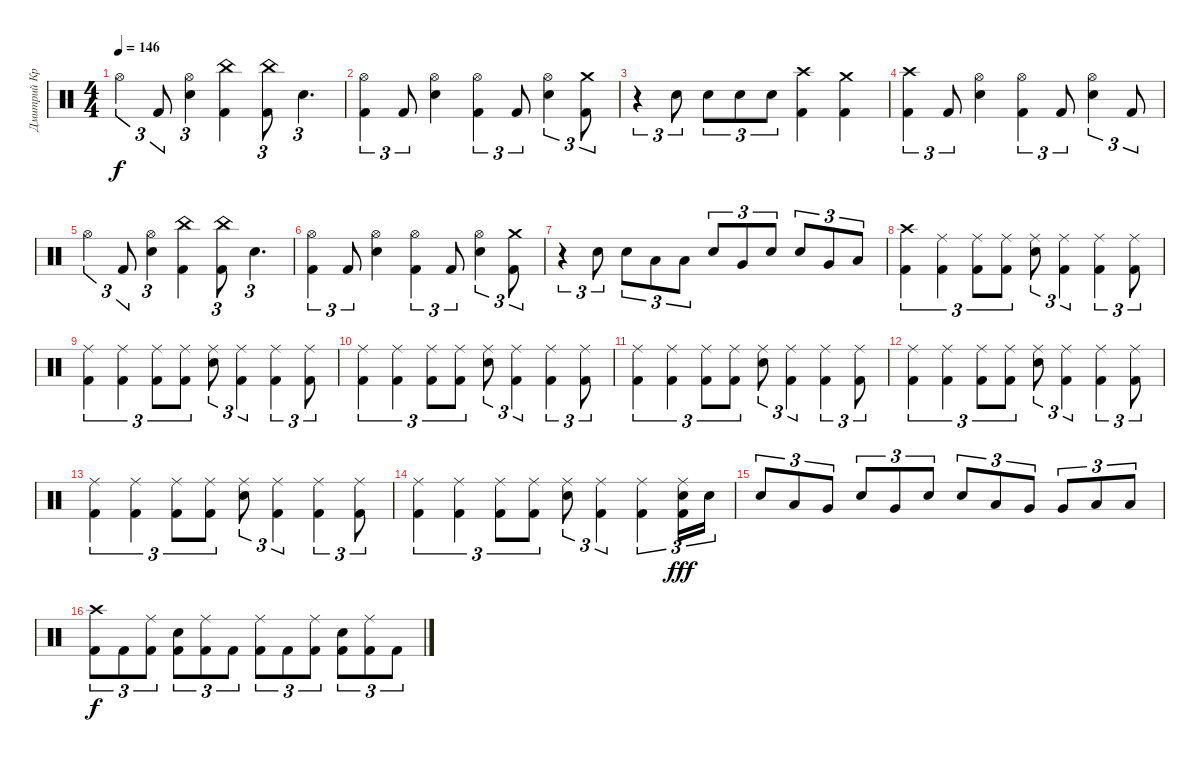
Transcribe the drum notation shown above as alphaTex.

\track ("Дмитрий Кривенков" "Дмитрий Кр") {instrument percussion}
\staff {score}
\articulation defaults
\ts (4 4)
\tempo 146
\clef neutral
\ks c "Hi-Hat (open)".4{tu (3 2) dy f} "Kick (hit) 2".8{tu (3 2)}
("Hi-Hat (open)" "Electric Snare (hit)").4{tu (3 2)} ("China (hit)" "Kick (hit) 2").4 ("China (hit)" "Kick (hit) 2").8{tu (3 2)} "Electric Snare (hit)".4{d tu (3 2)} |
("Hi-Hat (open)" "Kick (hit) 2").4{tu (3 2)} "Kick (hit) 2".8{tu (3 2)} ("Hi-Hat (open)" "Electric Snare (hit)").4 ("Hi-Hat (open)" "Kick (hit) 2").4{tu (3 2)} "Kick (hit) 2".8{tu (3 2)} ("Hi-Hat (open)" "Electric Snare (hit)").4{tu (3 2)} ("Crash medium (hit)" "Kick (hit) 2").8{tu (3 2)} |
r.4{tu (3 2)} "Electric Snare (hit)".8{tu (3 2)} "Electric Snare (hit)".8{tu (3 2)} "Electric Snare (hit)".8{tu (3 2)} "Electric Snare (hit)".8{tu (3 2)} ("Crash high (hit)" "Kick (hit) 2").4 ("Crash medium (hit)" "Kick (hit) 2").4 |
("Crash high (hit)" "Kick (hit) 2").4{tu (3 2)} "Kick (hit) 2".8{tu (3 2)} ("Hi-Hat (open)" "Electric Snare (hit)").4 ("Hi-Hat (open)" "Kick (hit) 2").4{tu (3 2)} "Kick (hit) 2".8{tu (3 2)} ("Hi-Hat (open)" "Electric Snare (hit)").4{tu (3 2)} "Kick (hit) 2".8{tu (3 2)} |
"Hi-Hat (open)".4{tu (3 2)} "Kick (hit) 2".8{tu (3 2)} ("Hi-Hat (open)" "Electric Snare (hit)").4{tu (3 2)} ("China (hit)" "Kick (hit) 2").4 ("China (hit)" "Kick (hit) 2").8{tu (3 2)} "Electric Snare (hit)".4{d tu (3 2)} |
("Hi-Hat (open)" "Kick (hit) 2").4{tu (3 2)} "Kick (hit) 2".8{tu (3 2)} ("Hi-Hat (open)" "Electric Snare (hit)").4 ("Hi-Hat (open)" "Kick (hit) 2").4{tu (3 2)} "Kick (hit) 2".8{tu (3 2)} ("Hi-Hat (open)" "Electric Snare (hit)").4{tu (3 2)} ("Crash medium (hit)" "Kick (hit) 2").8{tu (3 2)} |
r.4{tu (3 2)} "Electric Snare (hit)".8{tu (3 2)} "Electric Snare (hit)".8{tu (3 2)} "Low Tom (hit)".8{tu (3 2)} "Low Tom (hit)".8{tu (3 2)} "Electric Snare (hit)".8{tu (3 2)} "Very Low Tom (hit)".8{tu (3 2)} "Electric Snare (hit)".8{tu (3 2)} "Electric Snare (hit)".8{tu (3 2)} "Very Low Tom (hit)".8{tu (3 2)} "Low Floor Tom (hit)".8{tu (3 2)} |
("Crash high (hit)" "Kick (hit) 2").4{tu (3 2)} ("Ride (middle)" "Kick (hit) 2").4{tu (3 2)} ("Ride (middle)" "Kick (hit) 2").8{tu (3 2)} ("Ride (middle)" "Kick (hit) 2").8{tu (3 2)} ("Ride (middle)" "Electric Snare (hit)").8{tu (3 2)} ("Ride (middle)" "Kick (hit) 2").4{tu (3 2)} ("Ride (middle)" "Kick (hit) 2").4{tu (3 2)} ("Ride (middle)" "Kick (hit) 2").8{tu (3 2)} |
("Ride (middle)" "Kick (hit) 2").4{tu (3 2)} ("Ride (middle)" "Kick (hit) 2").4{tu (3 2)} ("Ride (middle)" "Kick (hit) 2").8{tu (3 2)} ("Ride (middle)" "Kick (hit) 2").8{tu (3 2)} ("Ride (middle)" "Electric Snare (hit)").8{tu (3 2)} ("Ride (middle)" "Kick (hit) 2").4{tu (3 2)} ("Ride (middle)" "Kick (hit) 2").4{tu (3 2)} ("Ride (middle)" "Kick (hit) 2").8{tu (3 2)} |
("Ride (middle)" "Kick (hit) 2").4{tu (3 2)} ("Ride (middle)" "Kick (hit) 2").4{tu (3 2)} ("Ride (middle)" "Kick (hit) 2").8{tu (3 2)} ("Ride (middle)" "Kick (hit) 2").8{tu (3 2)} ("Ride (middle)" "Electric Snare (hit)").8{tu (3 2)} ("Ride (middle)" "Kick (hit) 2").4{tu (3 2)} ("Ride (middle)" "Kick (hit) 2").4{tu (3 2)} ("Ride (middle)" "Kick (hit) 2").8{tu (3 2)} |
("Ride (middle)" "Kick (hit) 2").4{tu (3 2)} ("Ride (middle)" "Kick (hit) 2").4{tu (3 2)} ("Ride (middle)" "Kick (hit) 2").8{tu (3 2)} ("Ride (middle)" "Kick (hit) 2").8{tu (3 2)} ("Ride (middle)" "Electric Snare (hit)").8{tu (3 2)} ("Ride (middle)" "Kick (hit) 2").4{tu (3 2)} ("Ride (middle)" "Kick (hit) 2").4{tu (3 2)} ("Ride (middle)" "Kick (hit) 2").8{tu (3 2)} |
("Ride (middle)" "Kick (hit) 2").4{tu (3 2)} ("Ride (middle)" "Kick (hit) 2").4{tu (3 2)} ("Ride (middle)" "Kick (hit) 2").8{tu (3 2)} ("Ride (middle)" "Kick (hit) 2").8{tu (3 2)} ("Ride (middle)" "Electric Snare (hit)").8{tu (3 2)} ("Ride (middle)" "Kick (hit) 2").4{tu (3 2)} ("Ride (middle)" "Kick (hit) 2").4{tu (3 2)} ("Ride (middle)" "Kick (hit) 2").8{tu (3 2)} |
("Ride (middle)" "Kick (hit) 2").4{tu (3 2)} ("Ride (middle)" "Kick (hit) 2").4{tu (3 2)} ("Ride (middle)" "Kick (hit) 2").8{tu (3 2)} ("Ride (middle)" "Kick (hit) 2").8{tu (3 2)} ("Ride (middle)" "Electric Snare (hit)").8{tu (3 2)} ("Ride (middle)" "Kick (hit) 2").4{tu (3 2)} ("Ride (middle)" "Kick (hit) 2").4{tu (3 2)} ("Ride (middle)" "Kick (hit) 2").8{tu (3 2)} |
("Ride (middle)" "Kick (hit) 2").4{tu (3 2)} ("Ride (middle)" "Kick (hit) 2").4{tu (3 2)} ("Ride (middle)" "Kick (hit) 2").8{tu (3 2)} ("Ride (middle)" "Kick (hit) 2").8{tu (3 2)} ("Ride (middle)" "Electric Snare (hit)").8{tu (3 2)} ("Ride (middle)" "Kick (hit) 2").4{tu (3 2)} ("Ride (middle)" "Kick (hit) 2").4{tu (3 2)} ("Ride (middle)" "Electric Snare (hit)" "Kick (hit) 2").16{tu (3 2) dy fff} "Electric Snare (hit)".16{tu (3 2)} |
"Electric Snare (hit)".8{tu (3 2)} "Low Tom (hit)".8{tu (3 2)} "Very Low Tom (hit)".8{tu (3 2)} "Electric Snare (hit)".8{tu (3 2)} "Very Low Tom (hit)".8{tu (3 2)} "Electric Snare (hit)".8{tu (3 2)} "Electric Snare (hit)".8{tu (3 2)} "Low Tom (hit)".8{tu (3 2)} "Very Low Tom (hit)".8{tu (3 2)} "Very Low Tom (hit)".8{tu (3 2)} "Low Floor Tom (hit)".8{tu (3 2)} "Low Floor Tom (hit)".8{tu (3 2)} |
("Crash high (hit)" "Kick (hit) 2").8{tu (3 2) dy f} "Kick (hit) 2".8{tu (3 2)} ("Ride (middle)" "Kick (hit) 2").8{tu (3 2)} ("Electric Snare (hit)" "Kick (hit) 2").8{tu (3 2)} ("Ride (middle)" "Kick (hit) 2").8{tu (3 2)} "Kick (hit) 2".8{tu (3 2)} ("Ride (middle)" "Kick (hit) 2").8{tu (3 2)} "Kick (hit) 2".8{tu (3 2)} ("Ride (middle)" "Kick (hit) 2").8{tu (3 2)} ("Electric Snare (hit)" "Kick (hit) 2").8{tu (3 2)} ("Ride (middle)" "Kick (hit) 2").8{tu (3 2)} "Kick (hit) 2".8{tu (3 2)}
